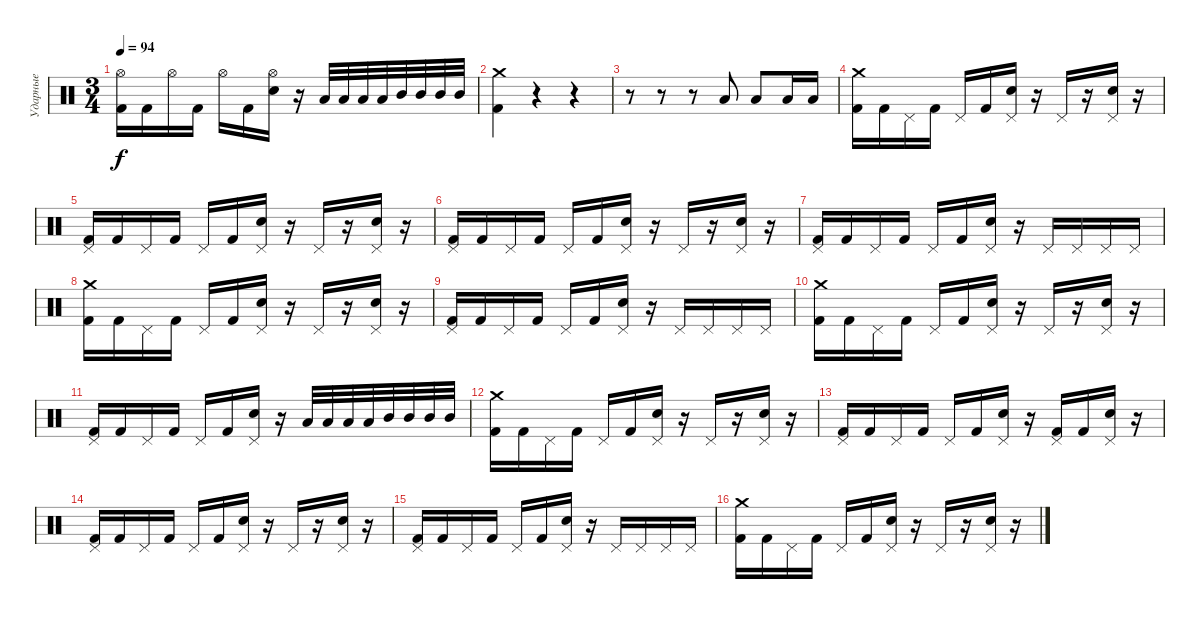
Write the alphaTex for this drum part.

\track ("Ударные" "Ударные") {instrument percussion}
\staff {score}
\articulation defaults
\ts (3 4)
\tempo 94
\clef neutral
\ks c
("Hi-Hat (open)" "Kick (hit) 2").16{dy f} "Kick (hit) 2".16 "Hi-Hat (open)".16 "Kick (hit) 2".16 "Hi-Hat (open)".16 "Kick (hit) 2".16 ("Hi-Hat (open)" "Electric Snare (hit)").16 r.16 "Low Tom (hit)".32 "Low Tom (hit)".32 "Low Tom (hit)".32 "Low Tom (hit)".32 "Mid Tom (hit)".32 "Mid Tom (hit)".32 "Mid Tom (hit)".32 "Mid Tom (hit)".32 |
("Crash medium (hit)" "Kick (hit) 2").4 r.4 r.4 |
r.8 r.8 r.8 "Low Tom (hit)".8 "Low Tom (hit)".8 "Low Tom (hit)".16 "Low Tom (hit)".16 |
("Crash medium (hit)" "Kick (hit) 2").16 "Kick (hit) 2".16 "Pedal Hi-Hat (hit)".16 "Kick (hit) 2".16 "Pedal Hi-Hat (hit)".16 "Kick (hit) 2".16 ("Pedal Hi-Hat (hit)" "Electric Snare (hit)").16 r.16 "Pedal Hi-Hat (hit)".16 r.16 ("Pedal Hi-Hat (hit)" "Electric Snare (hit)").16 r.16 |
("Pedal Hi-Hat (hit)" "Kick (hit) 2").16 "Kick (hit) 2".16 "Pedal Hi-Hat (hit)".16 "Kick (hit) 2".16 "Pedal Hi-Hat (hit)".16 "Kick (hit) 2".16 ("Pedal Hi-Hat (hit)" "Electric Snare (hit)").16 r.16 "Pedal Hi-Hat (hit)".16 r.16 ("Pedal Hi-Hat (hit)" "Electric Snare (hit)").16 r.16 |
("Pedal Hi-Hat (hit)" "Kick (hit) 2").16 "Kick (hit) 2".16 "Pedal Hi-Hat (hit)".16 "Kick (hit) 2".16 "Pedal Hi-Hat (hit)".16 "Kick (hit) 2".16 ("Pedal Hi-Hat (hit)" "Electric Snare (hit)").16 r.16 "Pedal Hi-Hat (hit)".16 r.16 ("Pedal Hi-Hat (hit)" "Electric Snare (hit)").16 r.16 |
("Pedal Hi-Hat (hit)" "Kick (hit) 2").16 "Kick (hit) 2".16 "Pedal Hi-Hat (hit)".16 "Kick (hit) 2".16 "Pedal Hi-Hat (hit)".16 "Kick (hit) 2".16 ("Pedal Hi-Hat (hit)" "Electric Snare (hit)").16 r.16 "Pedal Hi-Hat (hit)".16 "Pedal Hi-Hat (hit)".16 "Pedal Hi-Hat (hit)".16 "Pedal Hi-Hat (hit)".16 |
("Crash medium (hit)" "Kick (hit) 2").16 "Kick (hit) 2".16 "Pedal Hi-Hat (hit)".16 "Kick (hit) 2".16 "Pedal Hi-Hat (hit)".16 "Kick (hit) 2".16 ("Pedal Hi-Hat (hit)" "Electric Snare (hit)").16 r.16 "Pedal Hi-Hat (hit)".16 r.16 ("Pedal Hi-Hat (hit)" "Electric Snare (hit)").16 r.16 |
("Pedal Hi-Hat (hit)" "Kick (hit) 2").16 "Kick (hit) 2".16 "Pedal Hi-Hat (hit)".16 "Kick (hit) 2".16 "Pedal Hi-Hat (hit)".16 "Kick (hit) 2".16 ("Pedal Hi-Hat (hit)" "Electric Snare (hit)").16 r.16 "Pedal Hi-Hat (hit)".16 "Pedal Hi-Hat (hit)".16 "Pedal Hi-Hat (hit)".16 "Pedal Hi-Hat (hit)".16 |
("Crash medium (hit)" "Kick (hit) 2").16 "Kick (hit) 2".16 "Pedal Hi-Hat (hit)".16 "Kick (hit) 2".16 "Pedal Hi-Hat (hit)".16 "Kick (hit) 2".16 ("Pedal Hi-Hat (hit)" "Electric Snare (hit)").16 r.16 "Pedal Hi-Hat (hit)".16 r.16 ("Pedal Hi-Hat (hit)" "Electric Snare (hit)").16 r.16 |
("Pedal Hi-Hat (hit)" "Kick (hit) 2").16 "Kick (hit) 2".16 "Pedal Hi-Hat (hit)".16 "Kick (hit) 2".16 "Pedal Hi-Hat (hit)".16 "Kick (hit) 2".16 ("Pedal Hi-Hat (hit)" "Electric Snare (hit)").16 r.16 "Low Tom (hit)".32 "Low Tom (hit)".32 "Low Tom (hit)".32 "Low Tom (hit)".32 "Mid Tom (hit)".32 "Mid Tom (hit)".32 "Mid Tom (hit)".32 "Mid Tom (hit)".32 |
("Crash medium (hit)" "Kick (hit) 2").16 "Kick (hit) 2".16 "Pedal Hi-Hat (hit)".16 "Kick (hit) 2".16 "Pedal Hi-Hat (hit)".16 "Kick (hit) 2".16 ("Pedal Hi-Hat (hit)" "Electric Snare (hit)").16 r.16 "Pedal Hi-Hat (hit)".16 r.16 ("Pedal Hi-Hat (hit)" "Electric Snare (hit)").16 r.16 |
("Pedal Hi-Hat (hit)" "Kick (hit) 2").16 "Kick (hit) 2".16 "Pedal Hi-Hat (hit)".16 "Kick (hit) 2".16 "Pedal Hi-Hat (hit)".16 "Kick (hit) 2".16 ("Pedal Hi-Hat (hit)" "Electric Snare (hit)").16 r.16 ("Pedal Hi-Hat (hit)" "Kick (hit) 2").16 "Kick (hit) 2".16 ("Pedal Hi-Hat (hit)" "Electric Snare (hit)").16 r.16 |
("Pedal Hi-Hat (hit)" "Kick (hit) 2").16 "Kick (hit) 2".16 "Pedal Hi-Hat (hit)".16 "Kick (hit) 2".16 "Pedal Hi-Hat (hit)".16 "Kick (hit) 2".16 ("Pedal Hi-Hat (hit)" "Electric Snare (hit)").16 r.16 "Pedal Hi-Hat (hit)".16 r.16 ("Pedal Hi-Hat (hit)" "Electric Snare (hit)").16 r.16 |
("Pedal Hi-Hat (hit)" "Kick (hit) 2").16 "Kick (hit) 2".16 "Pedal Hi-Hat (hit)".16 "Kick (hit) 2".16 "Pedal Hi-Hat (hit)".16 "Kick (hit) 2".16 ("Pedal Hi-Hat (hit)" "Electric Snare (hit)").16 r.16 "Pedal Hi-Hat (hit)".16 "Pedal Hi-Hat (hit)".16 "Pedal Hi-Hat (hit)".16 "Pedal Hi-Hat (hit)".16 |
("Crash medium (hit)" "Kick (hit) 2").16 "Kick (hit) 2".16 "Pedal Hi-Hat (hit)".16 "Kick (hit) 2".16 "Pedal Hi-Hat (hit)".16 "Kick (hit) 2".16 ("Pedal Hi-Hat (hit)" "Electric Snare (hit)").16 r.16 "Pedal Hi-Hat (hit)".16 r.16 ("Pedal Hi-Hat (hit)" "Electric Snare (hit)").16 r.16
